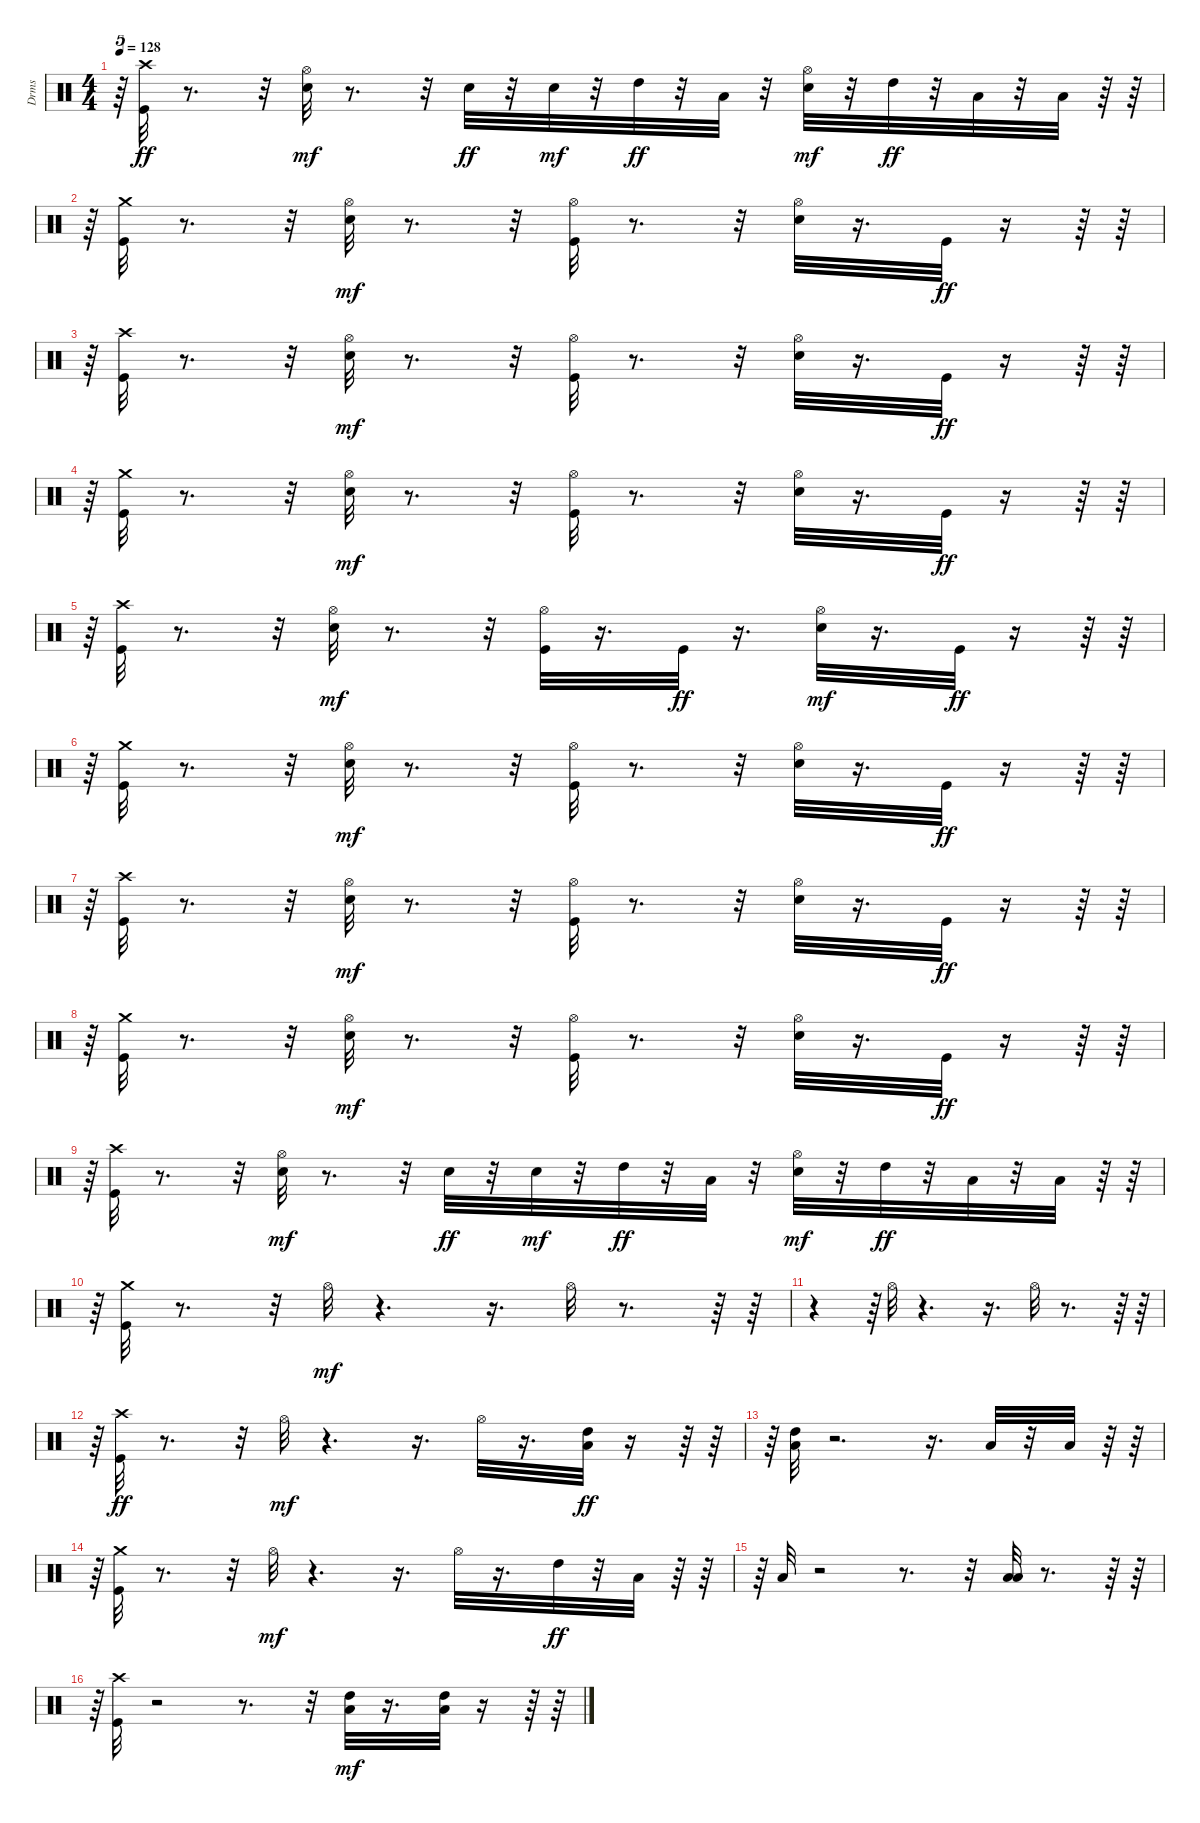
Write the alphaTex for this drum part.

\track ("Drms" "Drms") {instrument percussion}
\staff {score}
\articulation defaults
\ts (4 4)
\tempo 128
\clef neutral
\ks c
r.64{tu (5 4) dy ff} ("Kick (hit)" "Crash high (hit)").32 r.8{d} r.32 ("Snare (hit) 2" "Hi-Hat (open)").32{dy mf} r.8{d} r.32 "Snare (hit) 2".32{dy ff} r.32 "Snare (hit) 2".32{dy mf} r.32 "High Tom (hit)".32{dy ff} r.32 "Low Tom (hit)".32 r.32 ("Snare (hit) 2" "Hi-Hat (open)").32{dy mf} r.32 "High Tom (hit)".32{dy ff} r.32 "Low Tom (hit)".32 r.32 "Low Floor Tom (hit)".32 r.64 r.64 |
r.64{tu (5 4)} ("Kick (hit)" "Crash medium (hit)").32 r.8{d} r.32 ("Snare (hit) 2" "Hi-Hat (open)").32{dy mf} r.8{d} r.32 ("Kick (hit)" "Hi-Hat (open)").32 r.8{d} r.32 ("Snare (hit) 2" "Hi-Hat (open)").32 r.16{d} "Kick (hit)".32{dy ff} r.16 r.64 r.64 |
r.64{tu (5 4)} ("Kick (hit)" "Crash high (hit)").32 r.8{d} r.32 ("Snare (hit) 2" "Hi-Hat (open)").32{dy mf} r.8{d} r.32 ("Kick (hit)" "Hi-Hat (open)").32 r.8{d} r.32 ("Snare (hit) 2" "Hi-Hat (open)").32 r.16{d} "Kick (hit)".32{dy ff} r.16 r.64 r.64 |
r.64{tu (5 4)} ("Kick (hit)" "Crash medium (hit)").32 r.8{d} r.32 ("Snare (hit) 2" "Hi-Hat (open)").32{dy mf} r.8{d} r.32 ("Kick (hit)" "Hi-Hat (open)").32 r.8{d} r.32 ("Snare (hit) 2" "Hi-Hat (open)").32 r.16{d} "Kick (hit)".32{dy ff} r.16 r.64 r.64 |
r.64{tu (5 4)} ("Kick (hit)" "Crash high (hit)").32 r.8{d} r.32 ("Snare (hit) 2" "Hi-Hat (open)").32{dy mf} r.8{d} r.32 ("Kick (hit)" "Hi-Hat (open)").32 r.16{d} "Kick (hit)".32{dy ff} r.16{d} ("Snare (hit) 2" "Hi-Hat (open)").32{dy mf} r.16{d} "Kick (hit)".32{dy ff} r.16 r.64 r.64 |
r.64{tu (5 4)} ("Kick (hit)" "Crash medium (hit)").32 r.8{d} r.32 ("Snare (hit) 2" "Hi-Hat (open)").32{dy mf} r.8{d} r.32 ("Kick (hit)" "Hi-Hat (open)").32 r.8{d} r.32 ("Snare (hit) 2" "Hi-Hat (open)").32 r.16{d} "Kick (hit)".32{dy ff} r.16 r.64 r.64 |
r.64{tu (5 4)} ("Kick (hit)" "Crash high (hit)").32 r.8{d} r.32 ("Snare (hit) 2" "Hi-Hat (open)").32{dy mf} r.8{d} r.32 ("Kick (hit)" "Hi-Hat (open)").32 r.8{d} r.32 ("Snare (hit) 2" "Hi-Hat (open)").32 r.16{d} "Kick (hit)".32{dy ff} r.16 r.64 r.64 |
r.64{tu (5 4)} ("Kick (hit)" "Crash medium (hit)").32 r.8{d} r.32 ("Snare (hit) 2" "Hi-Hat (open)").32{dy mf} r.8{d} r.32 ("Kick (hit)" "Hi-Hat (open)").32 r.8{d} r.32 ("Snare (hit) 2" "Hi-Hat (open)").32 r.16{d} "Kick (hit)".32{dy ff} r.16 r.64 r.64 |
r.64{tu (5 4)} ("Kick (hit)" "Crash high (hit)").32 r.8{d} r.32 ("Snare (hit) 2" "Hi-Hat (open)").32{dy mf} r.8{d} r.32 "Snare (hit) 2".32{dy ff} r.32 "Snare (hit) 2".32{dy mf} r.32 "High Tom (hit)".32{dy ff} r.32 "Low Tom (hit)".32 r.32 ("Snare (hit) 2" "Hi-Hat (open)").32{dy mf} r.32 "High Tom (hit)".32{dy ff} r.32 "Low Tom (hit)".32 r.32 "Low Floor Tom (hit)".32 r.64 r.64 |
r.64{tu (5 4)} ("Kick (hit)" "Crash medium (hit)").32 r.8{d} r.32 "Hi-Hat (open)".32{dy mf} r.4{d} r.16{d} "Hi-Hat (open)".32 r.8{d} r.64 r.64 |
r.4 r.64{tu (5 4)} "Hi-Hat (open)".32 r.4{d} r.16{d} "Hi-Hat (open)".32 r.8{d} r.64 r.64 |
r.64{tu (5 4)} ("Crash high (hit)" "Kick (hit)").32{dy ff} r.8{d} r.32 "Hi-Hat (open)".32{dy mf} r.4{d} r.16{d} "Hi-Hat (open)".32 r.16{d} ("Low Tom (hit)" "High Tom (hit)").32{dy ff} r.16 r.64 r.64 |
r.64{tu (5 4)} ("Low Tom (hit)" "High Tom (hit)").32 r.2{d} r.16{d} "Low Tom (hit)".32 r.32 "Low Floor Tom (hit)".32 r.64 r.64 |
r.64{tu (5 4)} ("Kick (hit)" "Crash medium (hit)").32 r.8{d} r.32 "Hi-Hat (open)".32{dy mf} r.4{d} r.16{d} "Hi-Hat (open)".32 r.16{d} "High Tom (hit)".32{dy ff} r.32 "Low Tom (hit)".32 r.64 r.64 |
r.64{tu (5 4)} "Low Floor Tom (hit)".32 r.2 r.8{d} r.32 ("Low Floor Tom (hit)" "Low Tom (hit)").32 r.8{d} r.64 r.64 |
r.64{tu (5 4)} ("Crash high (hit)" "Kick (hit)").32 r.2 r.8{d} r.32 ("Low Tom (hit)" "High Tom (hit)").32{dy mf} r.16{d} ("Low Tom (hit)" "High Tom (hit)").32 r.16 r.64 r.64
